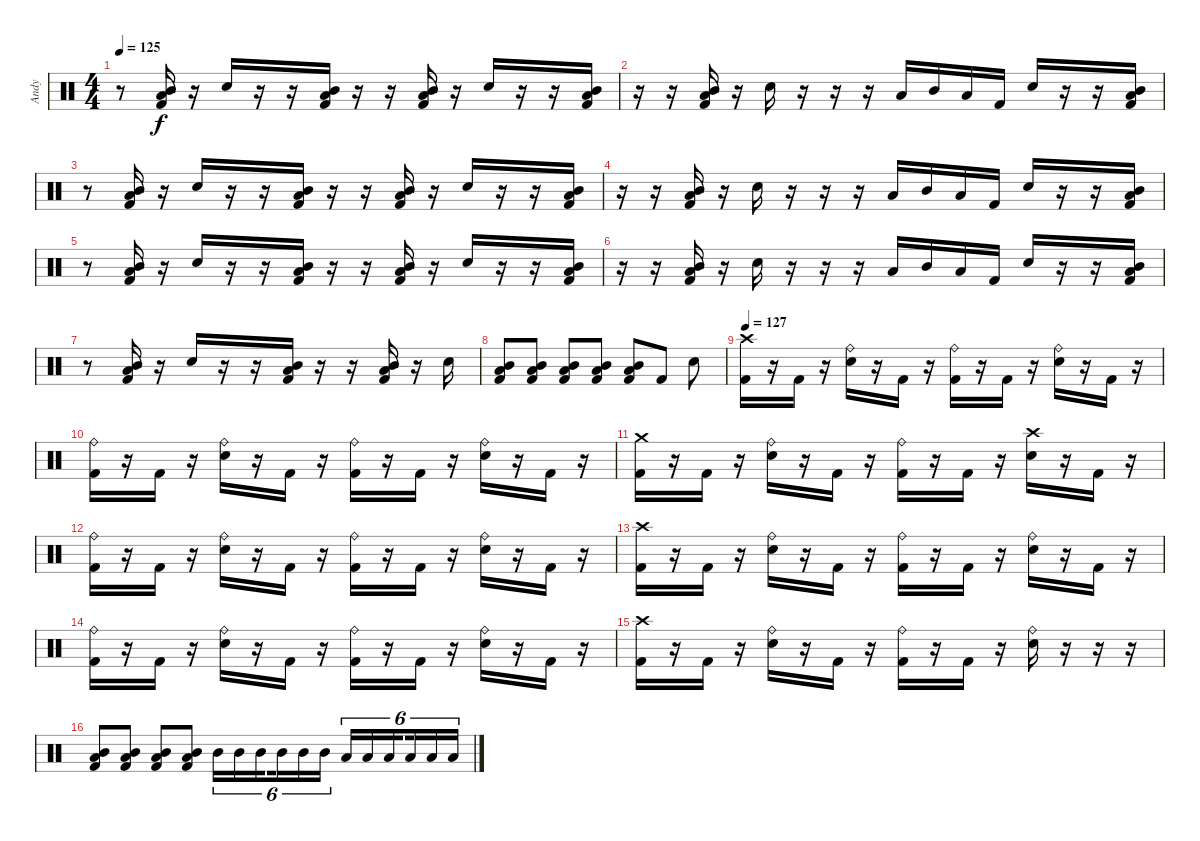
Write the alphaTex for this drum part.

\track ("Andy" "Andy") {instrument percussion}
\staff {score}
\articulation defaults
\ts (4 4)
\tempo 125
\clef neutral
\ks c
r.8{dy f} ("Mid Tom (hit)" "Low Tom (hit)" "Kick (hit) 2").16 r.16 "Electric Snare (hit)".16 r.16 r.16 ("Mid Tom (hit)" "Low Tom (hit)" "Kick (hit) 2").16 r.16 r.16 ("Mid Tom (hit)" "Low Tom (hit)" "Kick (hit) 2").16 r.16 "Electric Snare (hit)".16 r.16 r.16 ("Mid Tom (hit)" "Low Tom (hit)" "Kick (hit) 2").16 |
r.16 r.16 ("Mid Tom (hit)" "Low Tom (hit)" "Kick (hit) 2").16 r.16 "Electric Snare (hit)".16 r.16 r.16 r.16 "Low Tom (hit)".16 "Mid Tom (hit)".16 "Low Tom (hit)".16 "Kick (hit) 2".16 "Electric Snare (hit)".16 r.16 r.16 ("Mid Tom (hit)" "Low Tom (hit)" "Kick (hit) 2").16 |
r.8 ("Mid Tom (hit)" "Low Tom (hit)" "Kick (hit) 2").16 r.16 "Electric Snare (hit)".16 r.16 r.16 ("Mid Tom (hit)" "Low Tom (hit)" "Kick (hit) 2").16 r.16 r.16 ("Mid Tom (hit)" "Low Tom (hit)" "Kick (hit) 2").16 r.16 "Electric Snare (hit)".16 r.16 r.16 ("Mid Tom (hit)" "Low Tom (hit)" "Kick (hit) 2").16 |
r.16 r.16 ("Mid Tom (hit)" "Low Tom (hit)" "Kick (hit) 2").16 r.16 "Electric Snare (hit)".16 r.16 r.16 r.16 "Low Tom (hit)".16 "Mid Tom (hit)".16 "Low Tom (hit)".16 "Kick (hit) 2".16 "Electric Snare (hit)".16 r.16 r.16 ("Mid Tom (hit)" "Low Tom (hit)" "Kick (hit) 2").16 |
r.8 ("Mid Tom (hit)" "Low Tom (hit)" "Kick (hit) 2").16 r.16 "Electric Snare (hit)".16 r.16 r.16 ("Mid Tom (hit)" "Low Tom (hit)" "Kick (hit) 2").16 r.16 r.16 ("Mid Tom (hit)" "Low Tom (hit)" "Kick (hit) 2").16 r.16 "Electric Snare (hit)".16 r.16 r.16 ("Mid Tom (hit)" "Low Tom (hit)" "Kick (hit) 2").16 |
r.16 r.16 ("Mid Tom (hit)" "Low Tom (hit)" "Kick (hit) 2").16 r.16 "Electric Snare (hit)".16 r.16 r.16 r.16 "Low Tom (hit)".16 "Mid Tom (hit)".16 "Low Tom (hit)".16 "Kick (hit) 2".16 "Electric Snare (hit)".16 r.16 r.16 ("Mid Tom (hit)" "Low Tom (hit)" "Kick (hit) 2").16 |
r.8 ("Mid Tom (hit)" "Low Tom (hit)" "Kick (hit) 2").16 r.16 "Electric Snare (hit)".16 r.16 r.16 ("Mid Tom (hit)" "Low Tom (hit)" "Kick (hit) 2").16 r.16 r.16 ("Mid Tom (hit)" "Low Tom (hit)" "Kick (hit) 2").16 r.16 "Electric Snare (hit)".16 |
("Mid Tom (hit)" "Low Tom (hit)" "Kick (hit) 2").8 ("Mid Tom (hit)" "Low Tom (hit)" "Kick (hit) 2").8 ("Mid Tom (hit)" "Low Tom (hit)" "Kick (hit) 2").8 ("Mid Tom (hit)" "Low Tom (hit)" "Kick (hit) 2").8 ("Mid Tom (hit)" "Low Tom (hit)" "Kick (hit) 2").8 "Kick (hit) 2".8 "Electric Snare (hit)".8 |
\tempo 127
("Crash high (hit)" "Kick (hit) 2").16 r.16 "Kick (hit) 2".16 r.16 ("Ride (bell)" "Electric Snare (hit)").16 r.16 "Kick (hit) 2".16 r.16 ("Ride (bell)" "Kick (hit) 2").16 r.16 "Kick (hit) 2".16 r.16 ("Ride (bell)" "Electric Snare (hit)").16 r.16 "Kick (hit) 2".16 r.16 |
("Ride (bell)" "Kick (hit) 2").16 r.16 "Kick (hit) 2".16 r.16 ("Ride (bell)" "Electric Snare (hit)").16 r.16 "Kick (hit) 2".16 r.16 ("Ride (bell)" "Kick (hit) 2").16 r.16 "Kick (hit) 2".16 r.16 ("Ride (bell)" "Electric Snare (hit)").16 r.16 "Kick (hit) 2".16 r.16 |
("Crash medium (hit)" "Kick (hit) 2").16 r.16 "Kick (hit) 2".16 r.16 ("Ride (bell)" "Electric Snare (hit)").16 r.16 "Kick (hit) 2".16 r.16 ("Ride (bell)" "Kick (hit) 2").16 r.16 "Kick (hit) 2".16 r.16 ("Crash high (hit)" "Electric Snare (hit)").16 r.16 "Kick (hit) 2".16 r.16 |
("Ride (bell)" "Kick (hit) 2").16 r.16 "Kick (hit) 2".16 r.16 ("Ride (bell)" "Electric Snare (hit)").16 r.16 "Kick (hit) 2".16 r.16 ("Ride (bell)" "Kick (hit) 2").16 r.16 "Kick (hit) 2".16 r.16 ("Ride (bell)" "Electric Snare (hit)").16 r.16 "Kick (hit) 2".16 r.16 |
("Crash high (hit)" "Kick (hit) 2").16 r.16 "Kick (hit) 2".16 r.16 ("Ride (bell)" "Electric Snare (hit)").16 r.16 "Kick (hit) 2".16 r.16 ("Ride (bell)" "Kick (hit) 2").16 r.16 "Kick (hit) 2".16 r.16 ("Ride (bell)" "Electric Snare (hit)").16 r.16 "Kick (hit) 2".16 r.16 |
("Ride (bell)" "Kick (hit) 2").16 r.16 "Kick (hit) 2".16 r.16 ("Ride (bell)" "Electric Snare (hit)").16 r.16 "Kick (hit) 2".16 r.16 ("Ride (bell)" "Kick (hit) 2").16 r.16 "Kick (hit) 2".16 r.16 ("Ride (bell)" "Electric Snare (hit)").16 r.16 "Kick (hit) 2".16 r.16 |
("Crash high (hit)" "Kick (hit) 2").16 r.16 "Kick (hit) 2".16 r.16 ("Ride (bell)" "Electric Snare (hit)").16 r.16 "Kick (hit) 2".16 r.16 ("Ride (bell)" "Kick (hit) 2").16 r.16 "Kick (hit) 2".16 r.16 ("Ride (bell)" "Electric Snare (hit)").16 r.16 r.16 r.16 |
("Mid Tom (hit)" "Low Tom (hit)" "Kick (hit) 2").8 ("Mid Tom (hit)" "Low Tom (hit)" "Kick (hit) 2").8 ("Mid Tom (hit)" "Low Tom (hit)" "Kick (hit) 2").8 ("Mid Tom (hit)" "Low Tom (hit)" "Kick (hit) 2").8 "Mid Tom (hit)".16{tu (6 4)} "Mid Tom (hit)".16{tu (6 4)} "Mid Tom (hit)".16{tu (6 4) beam splitsecondary} "Mid Tom (hit)".16{tu (6 4)} "Mid Tom (hit)".16{tu (6 4)} "Mid Tom (hit)".16{tu (6 4)} "Low Tom (hit)".16{tu (6 4)} "Low Tom (hit)".16{tu (6 4)} "Low Tom (hit)".16{tu (6 4) beam splitsecondary} "Low Tom (hit)".16{tu (6 4)} "Low Tom (hit)".16{tu (6 4)} "Low Tom (hit)".16{tu (6 4)}
